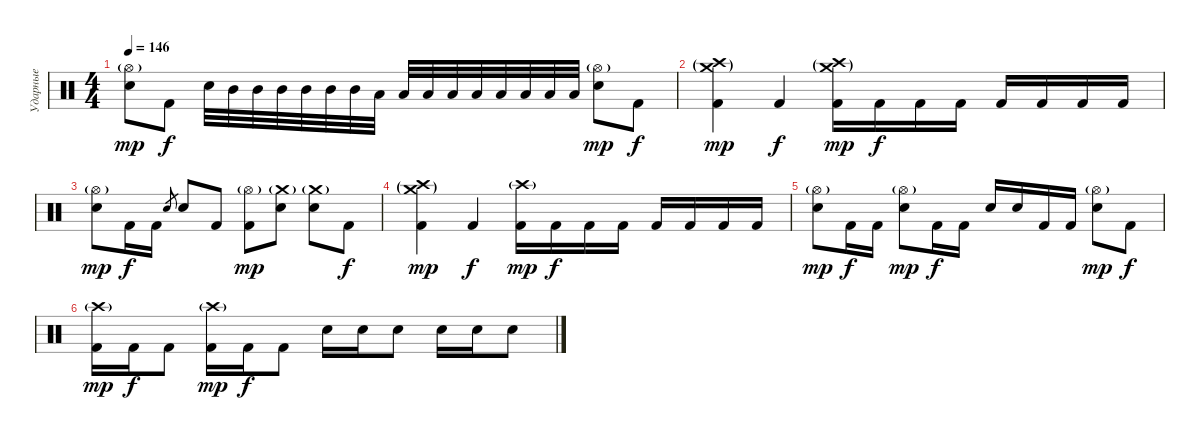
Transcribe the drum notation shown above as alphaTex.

\track ("Ударные" "Ударные") {instrument percussion}
\staff {score}
\articulation defaults
\ts (4 4)
\tempo 146
\clef neutral
\ks c
("Hi-Hat (open)"{g} "Electric Snare (hit)").8{dy mp} "Kick (hit) 2".8{dy f} "Electric Snare (hit)".32 "Mid Tom (hit)".32 "Mid Tom (hit)".32 "Mid Tom (hit)".32 "Mid Tom (hit)".32 "Mid Tom (hit)".32 "Mid Tom (hit)".32 "Low Tom (hit)".32 "Low Tom (hit)".32 "Low Tom (hit)".32 "Low Tom (hit)".32 "Low Tom (hit)".32 "Low Tom (hit)".32 "Low Tom (hit)".32 "Low Tom (hit)".32 "Low Tom (hit)".32 ("Hi-Hat (open)"{g} "Electric Snare (hit)").8{dy mp} "Kick (hit) 2".8{dy f} |
("Crash high (hit)"{g} "Crash medium (hit)"{g} "Kick (hit) 2").4{dy mp} "Kick (hit) 2".4{dy f} ("Crash high (hit)"{g} "Crash medium (hit)"{g} "Kick (hit) 2").16{dy mp} "Kick (hit) 2".16{dy f} "Kick (hit) 2".16 "Kick (hit) 2".16 "Kick (hit) 2".16 "Kick (hit) 2".16 "Kick (hit) 2".16 "Kick (hit) 2".16 |
("Hi-Hat (open)"{g} "Electric Snare (hit)").8{dy mp} "Kick (hit) 2".16{dy f} "Kick (hit) 2".16 "Electric Snare (hit)".8{gr} "Electric Snare (hit)".8 "Kick (hit) 2".8 ("Hi-Hat (open)"{g} "Kick (hit) 2").8{dy mp} ("Crash medium (hit)"{g} "Electric Snare (hit)").8 ("Crash medium (hit)"{g} "Electric Snare (hit)").8 "Kick (hit) 2".8{dy f} |
("Crash high (hit)"{g} "Crash medium (hit)"{g} "Kick (hit) 2").4{dy mp} "Kick (hit) 2".4{dy f} ("Crash high (hit)"{g} "Kick (hit) 2").16{dy mp} "Kick (hit) 2".16{dy f} "Kick (hit) 2".16 "Kick (hit) 2".16 "Kick (hit) 2".16 "Kick (hit) 2".16 "Kick (hit) 2".16 "Kick (hit) 2".16 |
("Hi-Hat (open)"{g} "Electric Snare (hit)").8{dy mp} "Kick (hit) 2".16{dy f} "Kick (hit) 2".16 ("Hi-Hat (open)"{g} "Electric Snare (hit)").8{dy mp} "Kick (hit) 2".16{dy f} "Kick (hit) 2".16 "Electric Snare (hit)".16 "Electric Snare (hit)".16 "Kick (hit) 2".16 "Kick (hit) 2".16 ("Hi-Hat (open)"{g} "Electric Snare (hit)").8{dy mp} "Kick (hit) 2".8{dy f} |
("Crash high (hit)"{g} "Kick (hit) 2").16{dy mp} "Kick (hit) 2".16{dy f} "Kick (hit) 2".8 ("Crash high (hit)"{g} "Kick (hit) 2").16{dy mp} "Kick (hit) 2".16{dy f} "Kick (hit) 2".8 "Electric Snare (hit)".16 "Electric Snare (hit)".16 "Electric Snare (hit)".8 "Electric Snare (hit)".16 "Electric Snare (hit)".16 "Electric Snare (hit)".8
